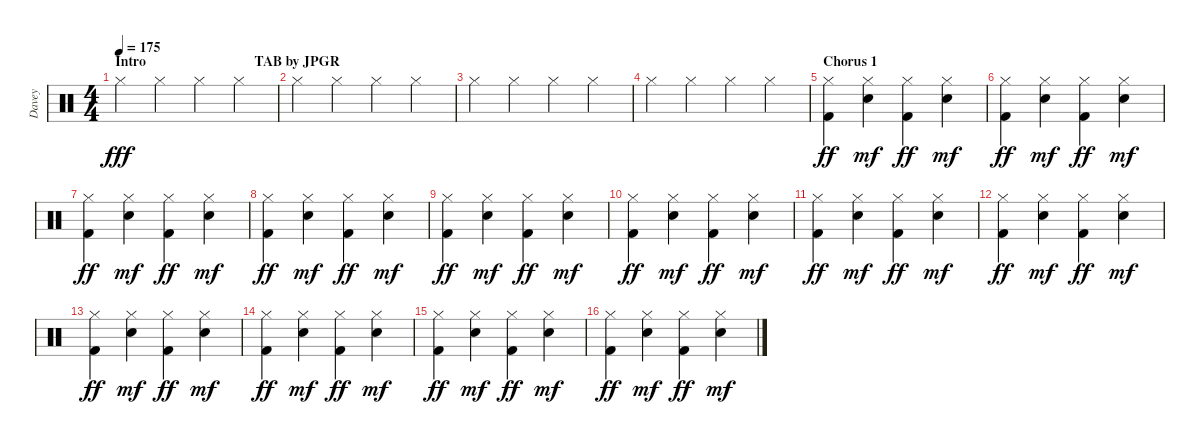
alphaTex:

\track ("Davey" "Davey") {instrument percussion}
\staff {score}
\articulation defaults
\ts (4 4)
\section ("" "Intro                               TAB by JPGR")
\tempo 175
\clef neutral
\ks c "Hi-Hat (closed)".4{dy fff} "Hi-Hat (closed)".4 "Hi-Hat (closed)".4 "Hi-Hat (closed)".4
|
"Hi-Hat (closed)".4 "Hi-Hat (closed)".4 "Hi-Hat (closed)".4 "Hi-Hat (closed)".4 |
"Hi-Hat (closed)".4 "Hi-Hat (closed)".4 "Hi-Hat (closed)".4 "Hi-Hat (closed)".4 |
"Hi-Hat (closed)".4 "Hi-Hat (closed)".4 "Hi-Hat (closed)".4 "Hi-Hat (closed)".4 |
\section ("" "Chorus 1")
("Hi-Hat (closed)" "Kick (hit) 2").4{dy ff} ("Hi-Hat (closed)" "Electric Snare (hit)").4{dy mf} ("Hi-Hat (closed)" "Kick (hit) 2").4{dy ff} ("Hi-Hat (closed)" "Electric Snare (hit)").4{dy mf} |
("Hi-Hat (closed)" "Kick (hit) 2").4{dy ff} ("Hi-Hat (closed)" "Electric Snare (hit)").4{dy mf} ("Hi-Hat (closed)" "Kick (hit) 2").4{dy ff} ("Hi-Hat (closed)" "Electric Snare (hit)").4{dy mf} |
("Hi-Hat (closed)" "Kick (hit) 2").4{dy ff} ("Hi-Hat (closed)" "Electric Snare (hit)").4{dy mf} ("Hi-Hat (closed)" "Kick (hit) 2").4{dy ff} ("Hi-Hat (closed)" "Electric Snare (hit)").4{dy mf} |
("Hi-Hat (closed)" "Kick (hit) 2").4{dy ff} ("Hi-Hat (closed)" "Electric Snare (hit)").4{dy mf} ("Hi-Hat (closed)" "Kick (hit) 2").4{dy ff} ("Hi-Hat (closed)" "Electric Snare (hit)").4{dy mf} |
("Hi-Hat (closed)" "Kick (hit) 2").4{dy ff} ("Hi-Hat (closed)" "Electric Snare (hit)").4{dy mf} ("Hi-Hat (closed)" "Kick (hit) 2").4{dy ff} ("Hi-Hat (closed)" "Electric Snare (hit)").4{dy mf} |
("Hi-Hat (closed)" "Kick (hit) 2").4{dy ff} ("Hi-Hat (closed)" "Electric Snare (hit)").4{dy mf} ("Hi-Hat (closed)" "Kick (hit) 2").4{dy ff} ("Hi-Hat (closed)" "Electric Snare (hit)").4{dy mf} |
("Hi-Hat (closed)" "Kick (hit) 2").4{dy ff} ("Hi-Hat (closed)" "Electric Snare (hit)").4{dy mf} ("Hi-Hat (closed)" "Kick (hit) 2").4{dy ff} ("Hi-Hat (closed)" "Electric Snare (hit)").4{dy mf} |
("Hi-Hat (closed)" "Kick (hit) 2").4{dy ff} ("Hi-Hat (closed)" "Electric Snare (hit)").4{dy mf} ("Hi-Hat (closed)" "Kick (hit) 2").4{dy ff} ("Hi-Hat (closed)" "Electric Snare (hit)").4{dy mf} |
("Hi-Hat (closed)" "Kick (hit) 2").4{dy ff} ("Hi-Hat (closed)" "Electric Snare (hit)").4{dy mf} ("Hi-Hat (closed)" "Kick (hit) 2").4{dy ff} ("Hi-Hat (closed)" "Electric Snare (hit)").4{dy mf} |
("Hi-Hat (closed)" "Kick (hit) 2").4{dy ff} ("Hi-Hat (closed)" "Electric Snare (hit)").4{dy mf} ("Hi-Hat (closed)" "Kick (hit) 2").4{dy ff} ("Hi-Hat (closed)" "Electric Snare (hit)").4{dy mf} |
("Hi-Hat (closed)" "Kick (hit) 2").4{dy ff} ("Hi-Hat (closed)" "Electric Snare (hit)").4{dy mf} ("Hi-Hat (closed)" "Kick (hit) 2").4{dy ff} ("Hi-Hat (closed)" "Electric Snare (hit)").4{dy mf} |
("Hi-Hat (closed)" "Kick (hit) 2").4{dy ff} ("Hi-Hat (closed)" "Electric Snare (hit)").4{dy mf} ("Hi-Hat (closed)" "Kick (hit) 2").4{dy ff} ("Hi-Hat (closed)" "Electric Snare (hit)").4{dy mf}
